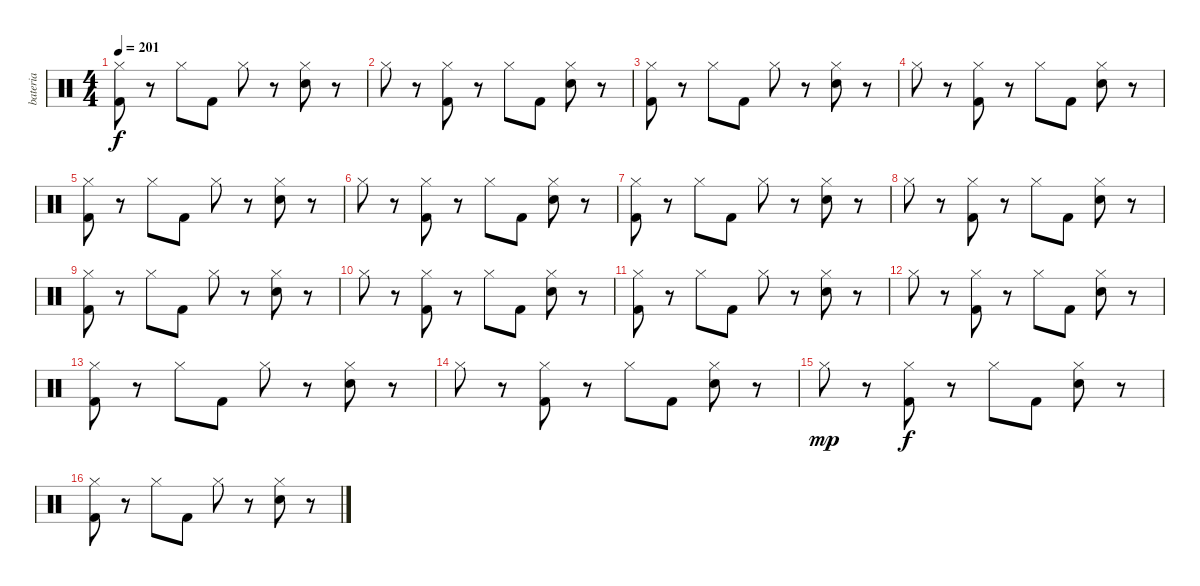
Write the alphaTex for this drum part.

\track ("bateria" "bateria") {solo instrument percussion}
\staff {score}
\articulation defaults
\ts (4 4)
\tempo 201
\clef neutral
\ks c
("Hi-Hat (closed)" "Kick (hit) 2").8{dy f} r.8 "Hi-Hat (closed)".8 "Kick (hit) 2".8 "Hi-Hat (closed)".8 r.8 ("Hi-Hat (closed)" "Electric Snare (hit)").8 r.8 |
"Hi-Hat (closed)".8 r.8 ("Hi-Hat (closed)" "Kick (hit) 2").8 r.8 "Hi-Hat (closed)".8 "Kick (hit) 2".8 ("Hi-Hat (closed)" "Electric Snare (hit)").8 r.8 |
("Hi-Hat (closed)" "Kick (hit) 2").8 r.8 "Hi-Hat (closed)".8 "Kick (hit) 2".8 "Hi-Hat (closed)".8 r.8 ("Hi-Hat (closed)" "Electric Snare (hit)").8 r.8 |
"Hi-Hat (closed)".8 r.8 ("Hi-Hat (closed)" "Kick (hit) 2").8 r.8 "Hi-Hat (closed)".8 "Kick (hit) 2".8 ("Hi-Hat (closed)" "Electric Snare (hit)").8 r.8 |
("Hi-Hat (closed)" "Kick (hit) 2").8 r.8 "Hi-Hat (closed)".8 "Kick (hit) 2".8 "Hi-Hat (closed)".8 r.8 ("Hi-Hat (closed)" "Electric Snare (hit)").8 r.8 |
"Hi-Hat (closed)".8 r.8 ("Hi-Hat (closed)" "Kick (hit) 2").8 r.8 "Hi-Hat (closed)".8 "Kick (hit) 2".8 ("Hi-Hat (closed)" "Electric Snare (hit)").8 r.8 |
("Hi-Hat (closed)" "Kick (hit) 2").8 r.8 "Hi-Hat (closed)".8 "Kick (hit) 2".8 "Hi-Hat (closed)".8 r.8 ("Hi-Hat (closed)" "Electric Snare (hit)").8 r.8 |
"Hi-Hat (closed)".8 r.8 ("Hi-Hat (closed)" "Kick (hit) 2").8 r.8 "Hi-Hat (closed)".8 "Kick (hit) 2".8 ("Hi-Hat (closed)" "Electric Snare (hit)").8 r.8 |
("Hi-Hat (closed)" "Kick (hit) 2").8 r.8 "Hi-Hat (closed)".8 "Kick (hit) 2".8 "Hi-Hat (closed)".8 r.8 ("Hi-Hat (closed)" "Electric Snare (hit)").8 r.8 |
"Hi-Hat (closed)".8 r.8 ("Hi-Hat (closed)" "Kick (hit) 2").8 r.8 "Hi-Hat (closed)".8 "Kick (hit) 2".8 ("Hi-Hat (closed)" "Electric Snare (hit)").8 r.8 |
("Hi-Hat (closed)" "Kick (hit) 2").8 r.8 "Hi-Hat (closed)".8 "Kick (hit) 2".8 "Hi-Hat (closed)".8 r.8 ("Hi-Hat (closed)" "Electric Snare (hit)").8 r.8 |
"Hi-Hat (closed)".8 r.8 ("Hi-Hat (closed)" "Kick (hit) 2").8 r.8 "Hi-Hat (closed)".8 "Kick (hit) 2".8 ("Hi-Hat (closed)" "Electric Snare (hit)").8 r.8 |
("Hi-Hat (closed)" "Kick (hit) 2").8 r.8 "Hi-Hat (closed)".8 "Kick (hit) 2".8 "Hi-Hat (closed)".8 r.8 ("Hi-Hat (closed)" "Electric Snare (hit)").8 r.8 |
"Hi-Hat (closed)".8 r.8 ("Hi-Hat (closed)" "Kick (hit) 2").8 r.8 "Hi-Hat (closed)".8 "Kick (hit) 2".8 ("Hi-Hat (closed)" "Electric Snare (hit)").8 r.8 |
"Hi-Hat (closed)".8{dy mp} r.8 ("Hi-Hat (closed)" "Kick (hit) 2").8{dy f} r.8 "Hi-Hat (closed)".8 "Kick (hit) 2".8 ("Hi-Hat (closed)" "Electric Snare (hit)").8 r.8 |
("Hi-Hat (closed)" "Kick (hit) 2").8 r.8 "Hi-Hat (closed)".8 "Kick (hit) 2".8 "Hi-Hat (closed)".8 r.8 ("Hi-Hat (closed)" "Electric Snare (hit)").8 r.8
